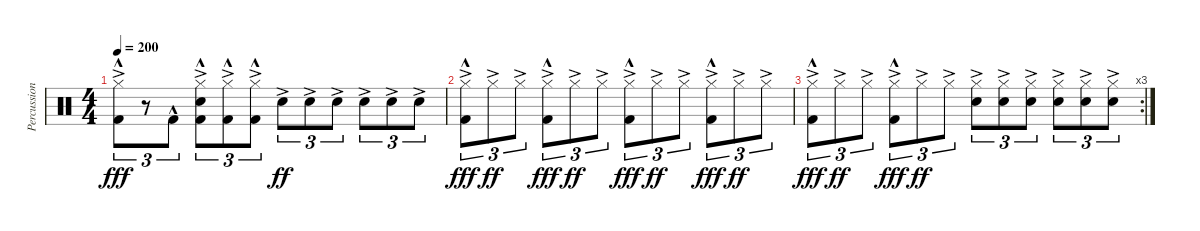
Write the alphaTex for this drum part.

\track ("Percussion" "Percussion") {instrument percussion}
\staff {score}
\articulation defaults
\ts (4 4)
\tempo 200
\clef neutral
\ks c
("Hi-Hat (closed)"{ac} "Kick (hit) 2"{hac}).8{tu (3 2) dy fff} r.8{tu (3 2)} "Kick (hit) 2"{hac}.8{tu (3 2)} ("Hi-Hat (closed)"{ac} "Snare (hit) 2"{ac} "Kick (hit) 2"{hac}).8{tu (3 2)} ("Hi-Hat (closed)"{ac} "Kick (hit) 2"{hac}).8{tu (3 2)} ("Hi-Hat (closed)"{ac} "Kick (hit) 2"{hac}).8{tu (3 2)} "Snare (hit) 2"{ac}.8{tu (3 2) dy ff} "Snare (hit) 2"{ac}.8{tu (3 2)} "Snare (hit) 2"{ac}.8{tu (3 2)} "Snare (hit) 2"{ac}.8{tu (3 2)} "Snare (hit) 2"{ac}.8{tu (3 2)} "Snare (hit) 2"{ac}.8{tu (3 2)} |
("Hi-Hat (closed)"{ac} "Kick (hit) 2"{hac}).8{tu (3 2) dy fff} "Hi-Hat (closed)"{ac}.8{tu (3 2) dy ff} "Hi-Hat (closed)"{ac}.8{tu (3 2)} ("Hi-Hat (closed)"{ac} "Kick (hit) 2"{hac}).8{tu (3 2) dy fff} "Hi-Hat (closed)"{ac}.8{tu (3 2) dy ff} "Hi-Hat (closed)"{ac}.8{tu (3 2)} ("Hi-Hat (closed)"{ac} "Kick (hit) 2"{hac}).8{tu (3 2) dy fff} "Hi-Hat (closed)"{ac}.8{tu (3 2) dy ff} "Hi-Hat (closed)"{ac}.8{tu (3 2)} ("Hi-Hat (closed)"{ac} "Kick (hit) 2"{hac}).8{tu (3 2) dy fff} "Hi-Hat (closed)"{ac}.8{tu (3 2) dy ff} "Hi-Hat (closed)"{ac}.8{tu (3 2)} |
\rc 3
("Hi-Hat (closed)"{ac} "Kick (hit) 2"{hac}).8{tu (3 2) dy fff} "Hi-Hat (closed)"{ac}.8{tu (3 2) dy ff} "Hi-Hat (closed)"{ac}.8{tu (3 2)} ("Hi-Hat (closed)"{ac} "Kick (hit) 2"{hac}).8{tu (3 2) dy fff} "Hi-Hat (closed)"{ac}.8{tu (3 2) dy ff} "Hi-Hat (closed)"{ac}.8{tu (3 2)} ("Hi-Hat (closed)"{ac} "Snare (hit) 2"{ac}).8{tu (3 2)} ("Hi-Hat (closed)"{ac} "Snare (hit) 2"{ac}).8{tu (3 2)} ("Hi-Hat (closed)"{ac} "Snare (hit) 2"{ac}).8{tu (3 2)} ("Hi-Hat (closed)"{ac} "Snare (hit) 2"{ac}).8{tu (3 2)} ("Hi-Hat (closed)"{ac} "Snare (hit) 2"{ac}).8{tu (3 2)} ("Hi-Hat (closed)"{ac} "Snare (hit) 2"{ac}).8{tu (3 2)}
